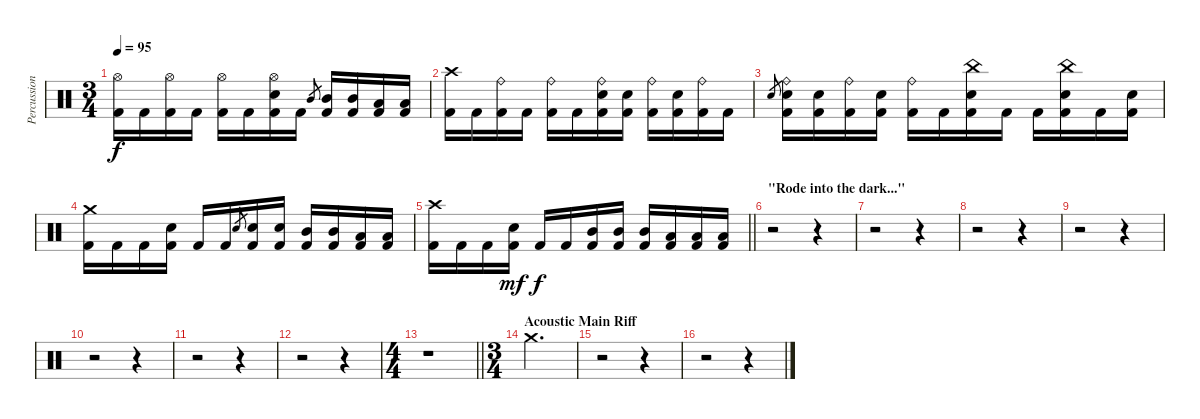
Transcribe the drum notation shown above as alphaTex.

\track ("Percussion" "Percussion") {instrument percussion}
\staff {score}
\articulation defaults
\ts (3 4)
\tempo 95
\clef neutral
\ks c
("Hi-Hat (open)" "Kick (hit) 2").16{dy f} "Kick (hit) 2".16 ("Hi-Hat (open)" "Kick (hit) 2").16 "Kick (hit) 2".16 ("Hi-Hat (open)" "Kick (hit) 2").16 "Kick (hit) 2".16 ("Hi-Hat (open)" "Electric Snare (hit)" "Kick (hit) 2").16 "Kick (hit) 2".16 "Mid Tom (hit)".8{gr} ("Mid Tom (hit)" "Kick (hit) 2").16 ("Mid Tom (hit)" "Kick (hit) 2").16 ("Low Tom (hit)" "Kick (hit) 2").16 ("Low Tom (hit)" "Kick (hit) 2").16 |
("Crash high (hit)" "Kick (hit) 2").16 "Kick (hit) 2".16 ("Ride (bell)" "Kick (hit) 2").16 "Kick (hit) 2".16 ("Ride (bell)" "Kick (hit) 2").16 "Kick (hit) 2".16 ("Ride (bell)" "Electric Snare (hit)" "Kick (hit) 2").16 ("Electric Snare (hit)" "Kick (hit) 2").16 ("Ride (bell)" "Kick (hit) 2").16 ("Electric Snare (hit)" "Kick (hit) 2").16 ("Ride (bell)" "Kick (hit) 2").16 "Kick (hit) 2".16 |
"Electric Snare (hit)".8{gr} ("Ride (bell)" "Electric Snare (hit)" "Kick (hit) 2").16 ("Electric Snare (hit)" "Kick (hit) 2").16 ("Ride (bell)" "Kick (hit) 2").16 ("Electric Snare (hit)" "Kick (hit) 2").16 ("Ride (bell)" "Kick (hit) 2").16 "Kick (hit) 2".16 ("China (hit)" "Electric Snare (hit)" "Kick (hit) 2").16 "Kick (hit) 2".16 "Kick (hit) 2".16 ("China (hit)" "Electric Snare (hit)" "Kick (hit) 2").16 "Kick (hit) 2".16 ("Electric Snare (hit)" "Kick (hit) 2").16 |
("Crash medium (hit)" "Kick (hit) 2").16 "Kick (hit) 2".16 "Kick (hit) 2".16 ("Electric Snare (hit)" "Kick (hit) 2").16 "Kick (hit) 2".16 "Kick (hit) 2".16 "Electric Snare (hit)".8{gr} ("Electric Snare (hit)" "Kick (hit) 2").16 ("Electric Snare (hit)" "Kick (hit) 2").16 ("Mid Tom (hit)" "Kick (hit) 2").16 ("Mid Tom (hit)" "Kick (hit) 2").16 ("Low Tom (hit)" "Kick (hit) 2").16 ("Low Tom (hit)" "Kick (hit) 2").16 |
\barLineRight lightlight
("Crash high (hit)" "Kick (hit) 2").16 "Kick (hit) 2".16 "Kick (hit) 2".16 ("Electric Snare (hit)" "Kick (hit) 2").16{dy mf} "Kick (hit) 2".16{dy f} "Kick (hit) 2".16 ("Mid Tom (hit)" "Kick (hit) 2").16 ("Mid Tom (hit)" "Kick (hit) 2").16 ("Mid Tom (hit)" "Kick (hit) 2").16 ("Low Tom (hit)" "Kick (hit) 2").16 ("Low Tom (hit)" "Kick (hit) 2").16 ("Low Tom (hit)" "Kick (hit) 2").16 |
\section ("" "\"Rode into the dark...\"")
r.2 r.4 |
r.2 r.4 |
r.2 r.4 |
r.2 r.4 |
r.2 r.4 |
r.2 r.4 |
r.2 r.4 |
\ts (4 4)
\barLineRight lightlight
r.1 |
\ts (3 4)
\section ("" "Acoustic Main Riff")
"Crash medium (hit)".2{d} |
r.2 r.4 |
r.2 r.4
